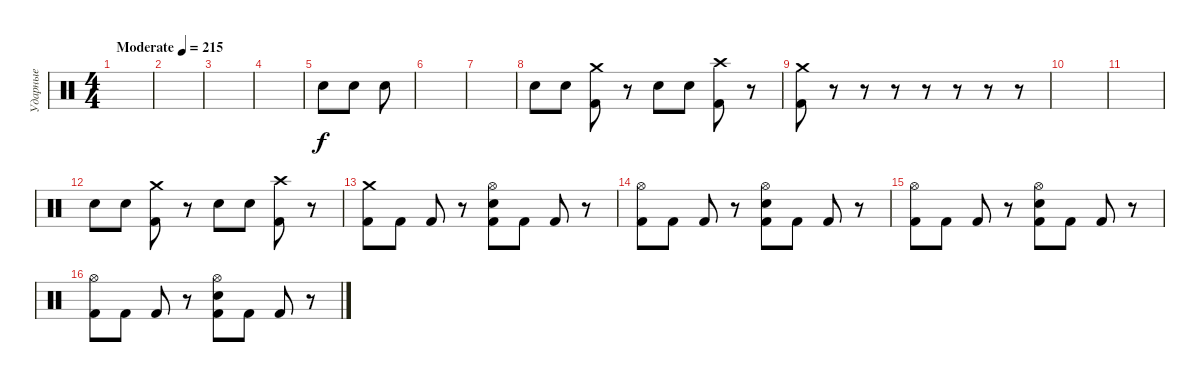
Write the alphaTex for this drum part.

\track ("Ударные" "Ударные") {instrument percussion}
\staff {score}
\articulation defaults
\ts (4 4)
\tempo (215 "Moderate")
\clef neutral
\ks c
|
|
|
|
"Electric Snare (hit)".8 "Electric Snare (hit)".8 "Electric Snare (hit)".8 |
|
|
"Electric Snare (hit)".8 "Electric Snare (hit)".8 ("Crash medium (hit)" "Kick (hit) 2").8 r.8 "Electric Snare (hit)".8 "Electric Snare (hit)".8 ("Crash high (hit)" "Kick (hit) 2").8 r.8 |
("Crash medium (hit)" "Kick (hit) 2").8 r.8 r.8 r.8 r.8 r.8 r.8 r.8 |
|
|
"Electric Snare (hit)".8 "Electric Snare (hit)".8 ("Crash medium (hit)" "Kick (hit) 2").8 r.8 "Electric Snare (hit)".8 "Electric Snare (hit)".8 ("Crash high (hit)" "Kick (hit) 2").8 r.8 |
("Crash medium (hit)" "Kick (hit) 2").8 "Kick (hit) 2".8 "Kick (hit) 2".8 r.8 ("Hi-Hat (open)" "Electric Snare (hit)" "Kick (hit) 2").8 "Kick (hit) 2".8 "Kick (hit) 2".8 r.8 |
("Hi-Hat (open)" "Kick (hit) 2").8 "Kick (hit) 2".8 "Kick (hit) 2".8 r.8 ("Hi-Hat (open)" "Electric Snare (hit)" "Kick (hit) 2").8 "Kick (hit) 2".8 "Kick (hit) 2".8 r.8 |
("Hi-Hat (open)" "Kick (hit) 2").8 "Kick (hit) 2".8 "Kick (hit) 2".8 r.8 ("Hi-Hat (open)" "Electric Snare (hit)" "Kick (hit) 2").8 "Kick (hit) 2".8 "Kick (hit) 2".8 r.8 |
("Hi-Hat (open)" "Kick (hit) 2").8 "Kick (hit) 2".8 "Kick (hit) 2".8 r.8 ("Hi-Hat (open)" "Electric Snare (hit)" "Kick (hit) 2").8 "Kick (hit) 2".8 "Kick (hit) 2".8 r.8
